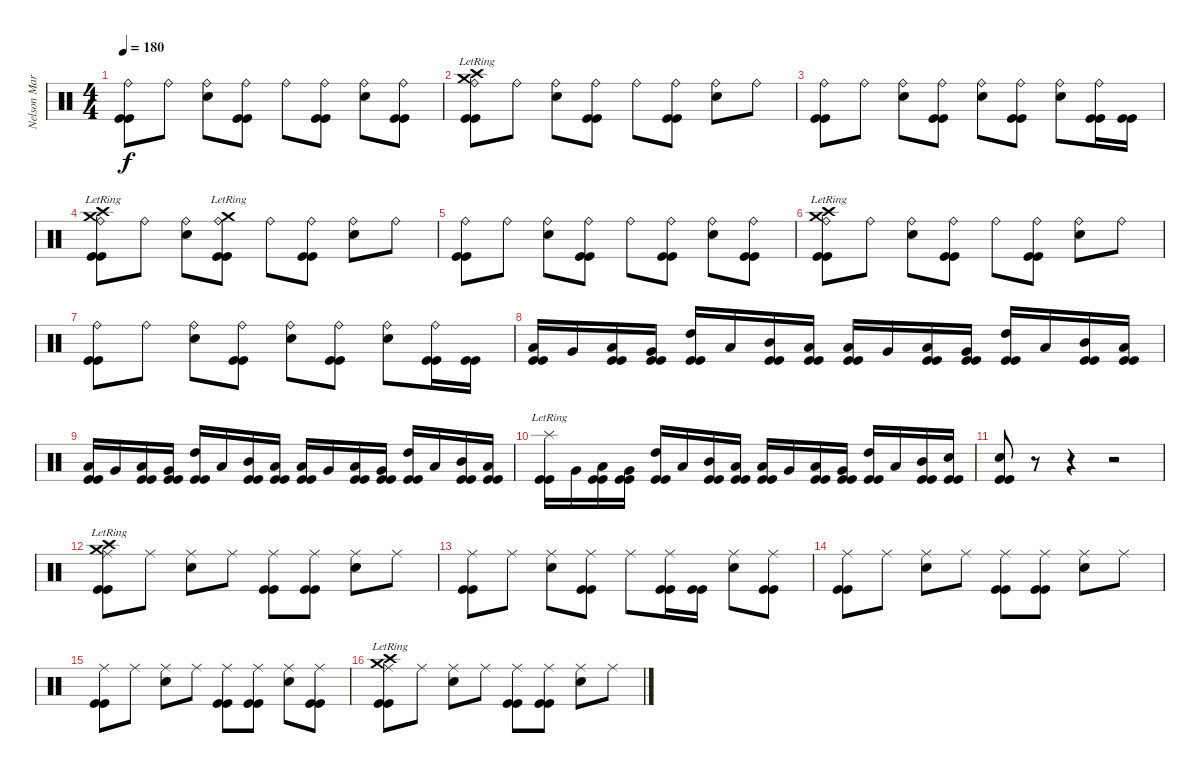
\track ("Nelson Maria" "Nelson Mar") {instrument percussion}
\staff {score}
\articulation defaults
\ts (4 4)
\tempo 180
\clef neutral
\ks c
("Ride (bell)" "Kick (hit)" "Kick (hit)").8{dy f} "Ride (bell)".8 ("Snare (hit) 2" "Ride (bell)").8 ("Ride (bell)" "Kick (hit)" "Kick (hit)").8 "Ride (bell)".8 ("Ride (bell)" "Kick (hit)" "Kick (hit)").8 ("Snare (hit) 2" "Ride (bell)").8 ("Ride (bell)" "Kick (hit)" "Kick (hit)").8 |
("Crash high (hit)"{lr} "Crash medium (hit)" "Ride (bell)" "Kick (hit)" "Kick (hit)").8 "Ride (bell)".8 ("Snare (hit) 2" "Ride (bell)").8 ("Ride (bell)" "Kick (hit)" "Kick (hit)").8 "Ride (bell)".8 ("Ride (bell)" "Kick (hit)" "Kick (hit)").8 ("Snare (hit) 2" "Ride (bell)").8 "Ride (bell)".8 |
("Ride (bell)" "Kick (hit)" "Kick (hit)").8 "Ride (bell)".8 ("Snare (hit) 2" "Ride (bell)").8 ("Ride (bell)" "Kick (hit)" "Kick (hit)").8 ("Snare (hit) 2" "Ride (bell)").8 ("Ride (bell)" "Kick (hit)" "Kick (hit)").8 ("Snare (hit) 2" "Ride (bell)").8 ("Ride (bell)" "Kick (hit)" "Kick (hit)").16 ("Kick (hit)" "Kick (hit)").16 |
("Crash high (hit)"{lr} "Crash medium (hit)" "Ride (bell)" "Kick (hit)" "Kick (hit)").8 "Ride (bell)".8 ("Snare (hit) 2" "Ride (bell)").8 ("Crash medium (hit)"{lr} "Ride (bell)" "Kick (hit)" "Kick (hit)").8 "Ride (bell)".8 ("Ride (bell)" "Kick (hit)" "Kick (hit)").8 ("Snare (hit) 2" "Ride (bell)").8 "Ride (bell)".8 |
("Ride (bell)" "Kick (hit)" "Kick (hit)").8 "Ride (bell)".8 ("Snare (hit) 2" "Ride (bell)").8 ("Ride (bell)" "Kick (hit)" "Kick (hit)").8 "Ride (bell)".8 ("Ride (bell)" "Kick (hit)" "Kick (hit)").8 ("Snare (hit) 2" "Ride (bell)").8 ("Ride (bell)" "Kick (hit)" "Kick (hit)").8 |
("Crash high (hit)"{lr} "Crash medium (hit)" "Ride (bell)" "Kick (hit)" "Kick (hit)").8 "Ride (bell)".8 ("Snare (hit) 2" "Ride (bell)").8 ("Ride (bell)" "Kick (hit)" "Kick (hit)").8 "Ride (bell)".8 ("Ride (bell)" "Kick (hit)" "Kick (hit)").8 ("Snare (hit) 2" "Ride (bell)").8 "Ride (bell)".8 |
("Ride (bell)" "Kick (hit)" "Kick (hit)").8 "Ride (bell)".8 ("Snare (hit) 2" "Ride (bell)").8 ("Ride (bell)" "Kick (hit)" "Kick (hit)").8 ("Snare (hit) 2" "Ride (bell)").8 ("Ride (bell)" "Kick (hit)" "Kick (hit)").8 ("Snare (hit) 2" "Ride (bell)").8 ("Ride (bell)" "Kick (hit)" "Kick (hit)").16 ("Kick (hit)" "Kick (hit)").16 |
("Low Tom (hit)" "Kick (hit)" "Kick (hit)").16 "Very Low Tom (hit)".16 ("Low Tom (hit)" "Kick (hit)" "Kick (hit)").16 ("Very Low Tom (hit)" "Kick (hit)" "Kick (hit)").16 ("High Tom (hit)" "Kick (hit)" "Kick (hit)").16 "Low Tom (hit)".16 ("Mid Tom (hit)" "Kick (hit)" "Kick (hit)").16 ("Low Tom (hit)" "Kick (hit)" "Kick (hit)").16 ("Low Tom (hit)" "Kick (hit)" "Kick (hit)").16 "Very Low Tom (hit)".16 ("Low Tom (hit)" "Kick (hit)" "Kick (hit)").16 ("Very Low Tom (hit)" "Kick (hit)" "Kick (hit)").16 ("High Tom (hit)" "Kick (hit)" "Kick (hit)").16 "Low Tom (hit)".16 ("Mid Tom (hit)" "Kick (hit)" "Kick (hit)").16 ("Low Tom (hit)" "Kick (hit)" "Kick (hit)").16 |
("Low Tom (hit)" "Kick (hit)" "Kick (hit)").16 "Very Low Tom (hit)".16 ("Low Tom (hit)" "Kick (hit)" "Kick (hit)").16 ("Very Low Tom (hit)" "Kick (hit)" "Kick (hit)").16 ("High Tom (hit)" "Kick (hit)" "Kick (hit)").16 "Low Tom (hit)".16 ("Mid Tom (hit)" "Kick (hit)" "Kick (hit)").16 ("Low Tom (hit)" "Kick (hit)" "Kick (hit)").16 ("Low Tom (hit)" "Kick (hit)" "Kick (hit)").16 "Very Low Tom (hit)".16 ("Low Tom (hit)" "Kick (hit)" "Kick (hit)").16 ("Very Low Tom (hit)" "Kick (hit)" "Kick (hit)").16 ("High Tom (hit)" "Kick (hit)" "Kick (hit)").16 "Low Tom (hit)".16 ("Mid Tom (hit)" "Kick (hit)" "Kick (hit)").16 ("Low Tom (hit)" "Kick (hit)" "Kick (hit)").16 |
("Splash (hit)"{lr} "Kick (hit)" "Kick (hit)").16 "Very Low Tom (hit)".16 ("Low Tom (hit)" "Kick (hit)" "Kick (hit)").16 ("Very Low Tom (hit)" "Kick (hit)" "Kick (hit)").16 ("High Tom (hit)" "Kick (hit)" "Kick (hit)").16 "Low Tom (hit)".16 ("Mid Tom (hit)" "Kick (hit)" "Kick (hit)").16 ("Low Tom (hit)" "Kick (hit)" "Kick (hit)").16 ("Low Tom (hit)" "Kick (hit)" "Kick (hit)").16 "Very Low Tom (hit)".16 ("Low Tom (hit)" "Kick (hit)" "Kick (hit)").16 ("Very Low Tom (hit)" "Kick (hit)" "Kick (hit)").16 ("High Tom (hit)" "Kick (hit)" "Kick (hit)").16 "Low Tom (hit)".16 ("Mid Tom (hit)" "Kick (hit)" "Kick (hit)").16 ("Snare (hit) 2" "Kick (hit)" "Kick (hit)").16 |
("Snare (hit) 2" "Kick (hit)" "Kick (hit)").8 r.8{volume 0} r.4 r.2 |
("Crash high (hit)"{lr} "Crash medium (hit)" "Ride (middle)" "Kick (hit)" "Kick (hit)").8{volume 16} "Ride (middle)".8 ("Snare (hit) 2" "Ride (middle)").8 "Ride (middle)".8 ("Ride (middle)" "Kick (hit)" "Kick (hit)").8 ("Ride (middle)" "Kick (hit)" "Kick (hit)").8 ("Snare (hit) 2" "Ride (middle)").8 "Ride (middle)".8 |
("Ride (middle)" "Kick (hit)" "Kick (hit)").8 "Ride (middle)".8 ("Snare (hit) 2" "Ride (middle)").8 ("Ride (middle)" "Kick (hit)" "Kick (hit)").8 "Ride (middle)".8 ("Ride (middle)" "Kick (hit)" "Kick (hit)").16 ("Kick (hit)" "Kick (hit)").16 ("Snare (hit) 2" "Ride (middle)").8 ("Ride (middle)" "Kick (hit)" "Kick (hit)").8 |
("Ride (middle)" "Kick (hit)" "Kick (hit)").8 "Ride (middle)".8 ("Snare (hit) 2" "Ride (middle)").8 "Ride (middle)".8 ("Ride (middle)" "Kick (hit)" "Kick (hit)").8 ("Ride (middle)" "Kick (hit)" "Kick (hit)").8 ("Snare (hit) 2" "Ride (middle)").8 "Ride (middle)".8 |
("Ride (middle)" "Kick (hit)" "Kick (hit)").8 "Ride (middle)".8 ("Snare (hit) 2" "Ride (middle)").8 "Ride (middle)".8 ("Ride (middle)" "Kick (hit)" "Kick (hit)").8 ("Ride (middle)" "Kick (hit)" "Kick (hit)").8 ("Snare (hit) 2" "Ride (middle)").8 ("Ride (middle)" "Kick (hit)" "Kick (hit)").8 |
("Crash high (hit)"{lr} "Crash medium (hit)" "Ride (middle)" "Kick (hit)" "Kick (hit)").8 "Ride (middle)".8 ("Snare (hit) 2" "Ride (middle)").8 "Ride (middle)".8 ("Ride (middle)" "Kick (hit)" "Kick (hit)").8 ("Ride (middle)" "Kick (hit)" "Kick (hit)").8 ("Snare (hit) 2" "Ride (middle)").8 "Ride (middle)".8
